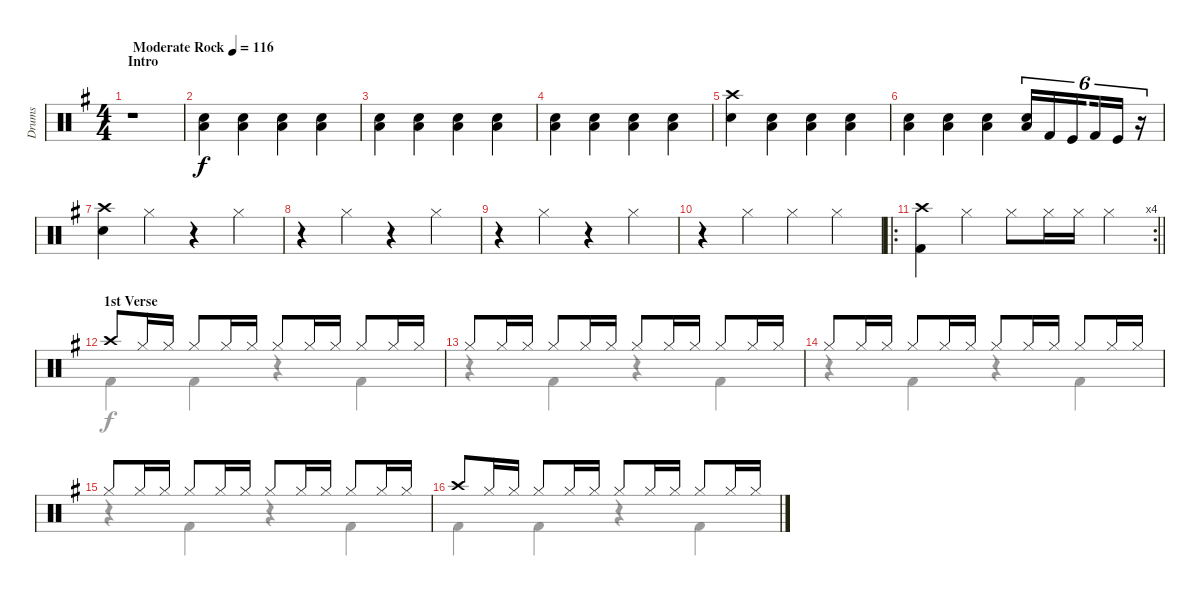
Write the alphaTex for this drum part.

\track ("Drums" "Drums") {instrument percussion}
\staff {score}
\articulation defaults
\voice
\ts (4 4)
\section ("" "Intro")
\tempo (116 "Moderate Rock")
\clef neutral
\ks g
r.1{dy f} |
("Low Floor Tom (hit)" "Snare (hit) 2").4 ("Low Floor Tom (hit)" "Snare (hit) 2").4 ("Low Floor Tom (hit)" "Snare (hit) 2").4 ("Low Floor Tom (hit)" "Snare (hit) 2").4 |
("Low Floor Tom (hit)" "Snare (hit) 2").4 ("Low Floor Tom (hit)" "Snare (hit) 2").4 ("Low Floor Tom (hit)" "Snare (hit) 2").4 ("Low Floor Tom (hit)" "Snare (hit) 2").4 |
("Low Floor Tom (hit)" "Snare (hit) 2").4 ("Low Floor Tom (hit)" "Snare (hit) 2").4 ("Low Floor Tom (hit)" "Snare (hit) 2").4 ("Low Floor Tom (hit)" "Snare (hit) 2").4 |
("Crash high (hit)" "Snare (hit) 2").4 ("Low Floor Tom (hit)" "Snare (hit) 2").4 ("Low Floor Tom (hit)" "Snare (hit) 2").4 ("Low Floor Tom (hit)" "Snare (hit) 2").4 |
("Low Floor Tom (hit)" "Snare (hit) 2").4 ("Low Floor Tom (hit)" "Snare (hit) 2").4 ("Low Floor Tom (hit)" "Snare (hit) 2").4 ("Low Floor Tom (hit)" "Snare (hit) 2").16{tu (6 4)} "Kick (hit) 2".16{tu (6 4)} "Kick (hit)".16{tu (6 4) beam splitsecondary} "Kick (hit) 2".16{tu (6 4)} "Kick (hit)".16{tu (6 4)} r.16{tu (6 4)} |
("Crash high (hit)" "Snare (hit) 2").4 "Hi-Hat (closed)".4 r.4 "Hi-Hat (closed)".4 |
r.4 "Hi-Hat (closed)".4 r.4 "Hi-Hat (closed)".4 |
r.4 "Hi-Hat (closed)".4 r.4 "Hi-Hat (closed)".4 |
r.4 "Hi-Hat (closed)".4 "Hi-Hat (closed)".4 "Hi-Hat (closed)".4 |
\ro
\rc 4
\barLineRight lightlight
("Crash high (hit)" "Kick (hit) 2").4 "Hi-Hat (closed)".4 "Hi-Hat (closed)".8 "Hi-Hat (closed)".16 "Hi-Hat (closed)".16 "Hi-Hat (closed)".4 |
\section ("" "1st Verse")
"Crash high (hit)".8 "Hi-Hat (closed)".16 "Hi-Hat (closed)".16 "Hi-Hat (closed)".8 "Hi-Hat (closed)".16 "Hi-Hat (closed)".16 "Hi-Hat (closed)".8 "Hi-Hat (closed)".16 "Hi-Hat (closed)".16 "Hi-Hat (closed)".8 "Hi-Hat (closed)".16 "Hi-Hat (closed)".16 |
"Hi-Hat (closed)".8 "Hi-Hat (closed)".16 "Hi-Hat (closed)".16 "Hi-Hat (closed)".8 "Hi-Hat (closed)".16 "Hi-Hat (closed)".16 "Hi-Hat (closed)".8 "Hi-Hat (closed)".16 "Hi-Hat (closed)".16 "Hi-Hat (closed)".8 "Hi-Hat (closed)".16 "Hi-Hat (closed)".16 |
"Hi-Hat (closed)".8 "Hi-Hat (closed)".16 "Hi-Hat (closed)".16 "Hi-Hat (closed)".8 "Hi-Hat (closed)".16 "Hi-Hat (closed)".16 "Hi-Hat (closed)".8 "Hi-Hat (closed)".16 "Hi-Hat (closed)".16 "Hi-Hat (closed)".8 "Hi-Hat (closed)".16 "Hi-Hat (closed)".16 |
"Hi-Hat (closed)".8 "Hi-Hat (closed)".16 "Hi-Hat (closed)".16 "Hi-Hat (closed)".8 "Hi-Hat (closed)".16 "Hi-Hat (closed)".16 "Hi-Hat (closed)".8 "Hi-Hat (closed)".16 "Hi-Hat (closed)".16 "Hi-Hat (closed)".8 "Hi-Hat (closed)".16 "Hi-Hat (closed)".16 |
"Crash high (hit)".8 "Hi-Hat (closed)".16 "Hi-Hat (closed)".16 "Hi-Hat (closed)".8 "Hi-Hat (closed)".16 "Hi-Hat (closed)".16 "Hi-Hat (closed)".8 "Hi-Hat (closed)".16 "Hi-Hat (closed)".16 "Hi-Hat (closed)".8 "Hi-Hat (closed)".16 "Hi-Hat (closed)".16
\voice
\clef neutral
\ottava regular
\simile none
\ks g
|
|
|
|
|
|
|
|
|
|
\barLineRight lightlight
|
"Kick (hit) 2".4 "Kick (hit) 2".4 r.4 "Kick (hit) 2".4 |
r.4 "Kick (hit) 2".4 r.4 "Kick (hit) 2".4 |
r.4 "Kick (hit) 2".4 r.4 "Kick (hit) 2".4 |
r.4 "Kick (hit) 2".4 r.4 "Kick (hit) 2".4 |
"Kick (hit) 2".4 "Kick (hit) 2".4 r.4 "Kick (hit) 2".4
